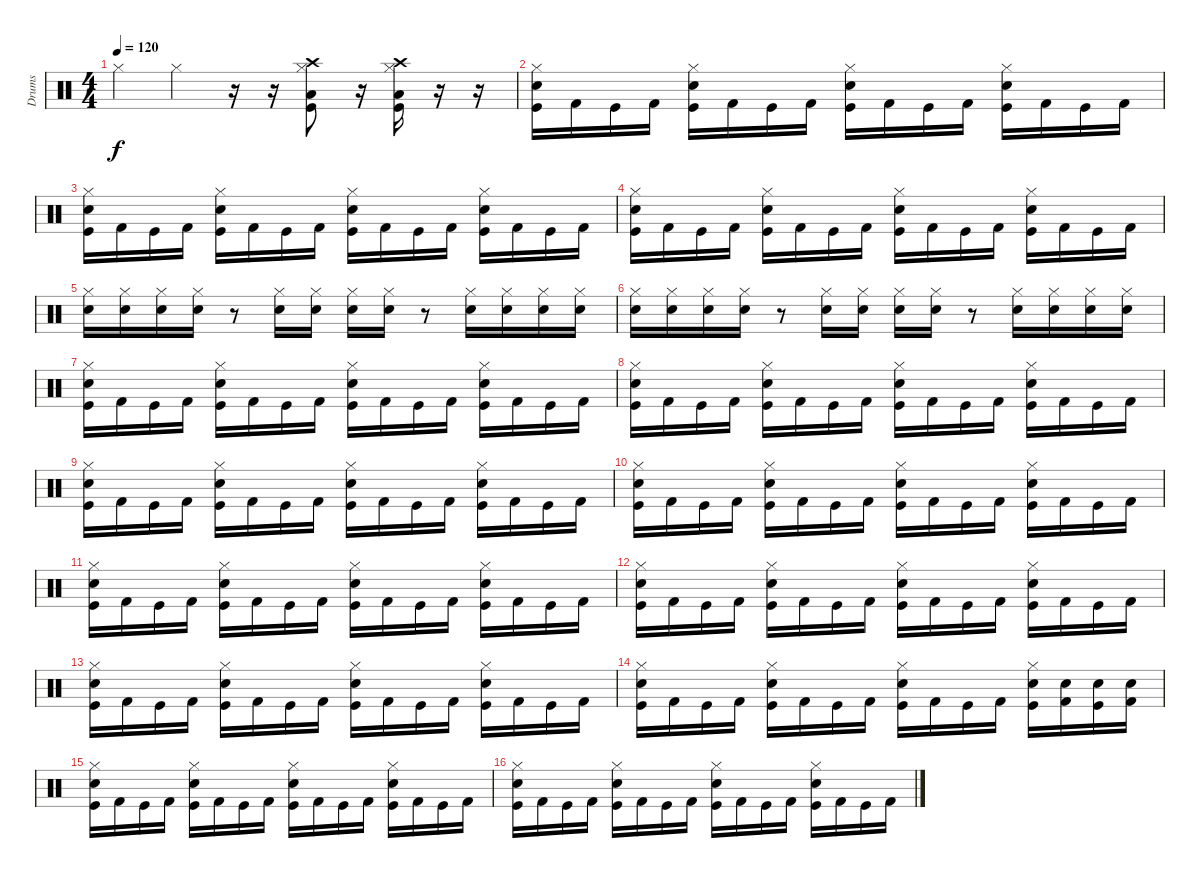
\track ("Drums" "Drums") {instrument percussion}
\staff {score}
\articulation defaults
\ts (4 4)
\tempo 120
\clef neutral
\ks c "Hi-Hat (closed)".4{dy f} "Hi-Hat (closed)".4
r.16 r.16 ("Hi-Hat (closed)" "Crash high (hit)" "Low Tom (hit)" "Kick (hit)").8 r.16 ("Hi-Hat (closed)" "Crash high (hit)" "Low Tom (hit)" "Kick (hit)").16 r.16 r.16 |
("Hi-Hat (closed)" "Snare (hit) 2" "Kick (hit)").16 "Kick (hit) 2".16 "Kick (hit)".16 "Kick (hit) 2".16 ("Hi-Hat (closed)" "Snare (hit) 2" "Kick (hit)").16 "Kick (hit) 2".16 "Kick (hit)".16 "Kick (hit) 2".16 ("Hi-Hat (closed)" "Snare (hit) 2" "Kick (hit)").16 "Kick (hit) 2".16 "Kick (hit)".16 "Kick (hit) 2".16 ("Hi-Hat (closed)" "Snare (hit) 2" "Kick (hit)").16 "Kick (hit) 2".16 "Kick (hit)".16 "Kick (hit) 2".16 |
("Hi-Hat (closed)" "Snare (hit) 2" "Kick (hit)").16 "Kick (hit) 2".16 "Kick (hit)".16 "Kick (hit) 2".16 ("Hi-Hat (closed)" "Snare (hit) 2" "Kick (hit)").16 "Kick (hit) 2".16 "Kick (hit)".16 "Kick (hit) 2".16 ("Hi-Hat (closed)" "Snare (hit) 2" "Kick (hit)").16 "Kick (hit) 2".16 "Kick (hit)".16 "Kick (hit) 2".16 ("Hi-Hat (closed)" "Snare (hit) 2" "Kick (hit)").16 "Kick (hit) 2".16 "Kick (hit)".16 "Kick (hit) 2".16 |
("Hi-Hat (closed)" "Snare (hit) 2" "Kick (hit)").16 "Kick (hit) 2".16 "Kick (hit)".16 "Kick (hit) 2".16 ("Hi-Hat (closed)" "Snare (hit) 2" "Kick (hit)").16 "Kick (hit) 2".16 "Kick (hit)".16 "Kick (hit) 2".16 ("Hi-Hat (closed)" "Snare (hit) 2" "Kick (hit)").16 "Kick (hit) 2".16 "Kick (hit)".16 "Kick (hit) 2".16 ("Hi-Hat (closed)" "Snare (hit) 2" "Kick (hit)").16 "Kick (hit) 2".16 "Kick (hit)".16 "Kick (hit) 2".16 |
("Hi-Hat (closed)" "Electric Snare (hit)").16 ("Hi-Hat (closed)" "Electric Snare (hit)").16 ("Hi-Hat (closed)" "Electric Snare (hit)").16 ("Hi-Hat (closed)" "Electric Snare (hit)").16 r.8 ("Hi-Hat (closed)" "Electric Snare (hit)").16 ("Hi-Hat (closed)" "Electric Snare (hit)").16 ("Hi-Hat (closed)" "Electric Snare (hit)").16 ("Hi-Hat (closed)" "Electric Snare (hit)").16 r.8 ("Hi-Hat (closed)" "Electric Snare (hit)").16 ("Hi-Hat (closed)" "Electric Snare (hit)").16 ("Hi-Hat (closed)" "Electric Snare (hit)").16 ("Hi-Hat (closed)" "Electric Snare (hit)").16 |
("Hi-Hat (closed)" "Snare (hit) 2").16 ("Hi-Hat (closed)" "Snare (hit) 2").16 ("Hi-Hat (closed)" "Snare (hit) 2").16 ("Hi-Hat (closed)" "Snare (hit) 2").16 r.8 ("Hi-Hat (closed)" "Snare (hit) 2").16 ("Hi-Hat (closed)" "Snare (hit) 2").16 ("Hi-Hat (closed)" "Snare (hit) 2").16 ("Hi-Hat (closed)" "Snare (hit) 2").16 r.8 ("Hi-Hat (closed)" "Snare (hit) 2").16 ("Hi-Hat (closed)" "Snare (hit) 2").16 ("Hi-Hat (closed)" "Snare (hit) 2").16 ("Hi-Hat (closed)" "Snare (hit) 2").16 |
("Hi-Hat (closed)" "Snare (hit) 2" "Kick (hit)").16 "Kick (hit) 2".16 "Kick (hit)".16 "Kick (hit) 2".16 ("Hi-Hat (closed)" "Snare (hit) 2" "Kick (hit)").16 "Kick (hit) 2".16 "Kick (hit)".16 "Kick (hit) 2".16 ("Hi-Hat (closed)" "Snare (hit) 2" "Kick (hit)").16 "Kick (hit) 2".16 "Kick (hit)".16 "Kick (hit) 2".16 ("Hi-Hat (closed)" "Snare (hit) 2" "Kick (hit)").16 "Kick (hit) 2".16 "Kick (hit)".16 "Kick (hit) 2".16 |
("Hi-Hat (closed)" "Snare (hit) 2" "Kick (hit)").16 "Kick (hit) 2".16 "Kick (hit)".16 "Kick (hit) 2".16 ("Hi-Hat (closed)" "Snare (hit) 2" "Kick (hit)").16 "Kick (hit) 2".16 "Kick (hit)".16 "Kick (hit) 2".16 ("Hi-Hat (closed)" "Snare (hit) 2" "Kick (hit)").16 "Kick (hit) 2".16 "Kick (hit)".16 "Kick (hit) 2".16 ("Hi-Hat (closed)" "Snare (hit) 2" "Kick (hit)").16 "Kick (hit) 2".16 "Kick (hit)".16 "Kick (hit) 2".16 |
("Hi-Hat (closed)" "Snare (hit) 2" "Kick (hit)").16 "Kick (hit) 2".16 "Kick (hit)".16 "Kick (hit) 2".16 ("Hi-Hat (closed)" "Snare (hit) 2" "Kick (hit)").16 "Kick (hit) 2".16 "Kick (hit)".16 "Kick (hit) 2".16 ("Hi-Hat (closed)" "Snare (hit) 2" "Kick (hit)").16 "Kick (hit) 2".16 "Kick (hit)".16 "Kick (hit) 2".16 ("Hi-Hat (closed)" "Snare (hit) 2" "Kick (hit)").16 "Kick (hit) 2".16 "Kick (hit)".16 "Kick (hit) 2".16 |
("Hi-Hat (closed)" "Snare (hit) 2" "Kick (hit)").16 "Kick (hit) 2".16 "Kick (hit)".16 "Kick (hit) 2".16 ("Hi-Hat (closed)" "Snare (hit) 2" "Kick (hit)").16 "Kick (hit) 2".16 "Kick (hit)".16 "Kick (hit) 2".16 ("Hi-Hat (closed)" "Snare (hit) 2" "Kick (hit)").16 "Kick (hit) 2".16 "Kick (hit)".16 "Kick (hit) 2".16 ("Hi-Hat (closed)" "Snare (hit) 2" "Kick (hit)").16 "Kick (hit) 2".16 "Kick (hit)".16 "Kick (hit) 2".16 |
("Hi-Hat (closed)" "Snare (hit) 2" "Kick (hit)").16 "Kick (hit) 2".16 "Kick (hit)".16 "Kick (hit) 2".16 ("Hi-Hat (closed)" "Snare (hit) 2" "Kick (hit)").16 "Kick (hit) 2".16 "Kick (hit)".16 "Kick (hit) 2".16 ("Hi-Hat (closed)" "Snare (hit) 2" "Kick (hit)").16 "Kick (hit) 2".16 "Kick (hit)".16 "Kick (hit) 2".16 ("Hi-Hat (closed)" "Snare (hit) 2" "Kick (hit)").16 "Kick (hit) 2".16 "Kick (hit)".16 "Kick (hit) 2".16 |
("Hi-Hat (closed)" "Snare (hit) 2" "Kick (hit)").16 "Kick (hit) 2".16 "Kick (hit)".16 "Kick (hit) 2".16 ("Hi-Hat (closed)" "Snare (hit) 2" "Kick (hit)").16 "Kick (hit) 2".16 "Kick (hit)".16 "Kick (hit) 2".16 ("Hi-Hat (closed)" "Snare (hit) 2" "Kick (hit)").16 "Kick (hit) 2".16 "Kick (hit)".16 "Kick (hit) 2".16 ("Hi-Hat (closed)" "Snare (hit) 2" "Kick (hit)").16 "Kick (hit) 2".16 "Kick (hit)".16 "Kick (hit) 2".16 |
("Hi-Hat (closed)" "Snare (hit) 2" "Kick (hit)").16 "Kick (hit) 2".16 "Kick (hit)".16 "Kick (hit) 2".16 ("Hi-Hat (closed)" "Snare (hit) 2" "Kick (hit)").16 "Kick (hit) 2".16 "Kick (hit)".16 "Kick (hit) 2".16 ("Hi-Hat (closed)" "Snare (hit) 2" "Kick (hit)").16 "Kick (hit) 2".16 "Kick (hit)".16 "Kick (hit) 2".16 ("Hi-Hat (closed)" "Snare (hit) 2" "Kick (hit)").16 "Kick (hit) 2".16 "Kick (hit)".16 "Kick (hit) 2".16 |
("Hi-Hat (closed)" "Snare (hit) 2" "Kick (hit)").16 "Kick (hit) 2".16 "Kick (hit)".16 "Kick (hit) 2".16 ("Hi-Hat (closed)" "Snare (hit) 2" "Kick (hit)").16 "Kick (hit) 2".16 "Kick (hit)".16 "Kick (hit) 2".16 ("Hi-Hat (closed)" "Snare (hit) 2" "Kick (hit)").16 "Kick (hit) 2".16 "Kick (hit)".16 "Kick (hit) 2".16 ("Hi-Hat (closed)" "Snare (hit) 2" "Kick (hit)").16 ("Snare (hit) 2" "Kick (hit) 2").16 ("Snare (hit) 2" "Kick (hit)").16 ("Snare (hit) 2" "Kick (hit) 2").16 |
("Hi-Hat (closed)" "Snare (hit) 2" "Kick (hit)").16 "Kick (hit) 2".16 "Kick (hit)".16 "Kick (hit) 2".16 ("Hi-Hat (closed)" "Snare (hit) 2" "Kick (hit)").16 "Kick (hit) 2".16 "Kick (hit)".16 "Kick (hit) 2".16 ("Hi-Hat (closed)" "Snare (hit) 2" "Kick (hit)").16 "Kick (hit) 2".16 "Kick (hit)".16 "Kick (hit) 2".16 ("Hi-Hat (closed)" "Snare (hit) 2" "Kick (hit)").16 "Kick (hit) 2".16 "Kick (hit)".16 "Kick (hit) 2".16 |
("Hi-Hat (closed)" "Snare (hit) 2" "Kick (hit)").16 "Kick (hit) 2".16 "Kick (hit)".16 "Kick (hit) 2".16 ("Hi-Hat (closed)" "Snare (hit) 2" "Kick (hit)").16 "Kick (hit) 2".16 "Kick (hit)".16 "Kick (hit) 2".16 ("Hi-Hat (closed)" "Snare (hit) 2" "Kick (hit)").16 "Kick (hit) 2".16 "Kick (hit)".16 "Kick (hit) 2".16 ("Hi-Hat (closed)" "Snare (hit) 2" "Kick (hit)").16 "Kick (hit) 2".16 "Kick (hit)".16 "Kick (hit) 2".16
